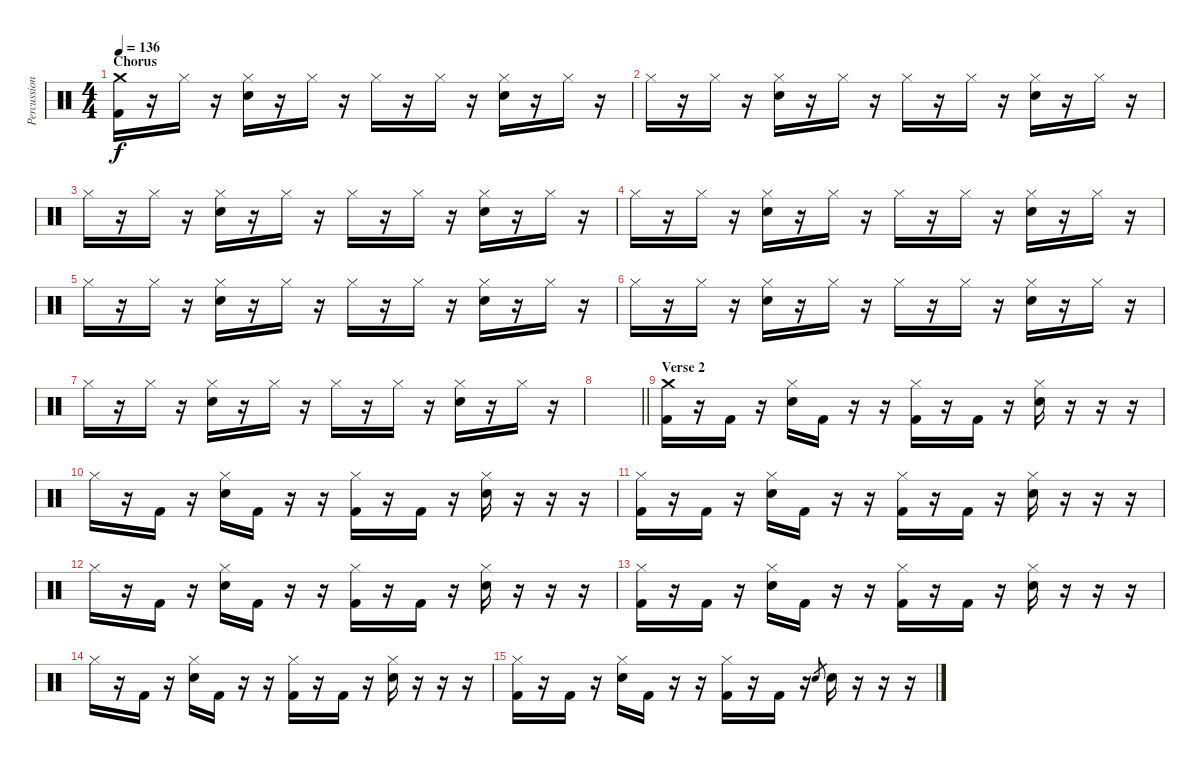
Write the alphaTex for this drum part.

\track ("Percussion" "Percussion") {instrument percussion}
\staff {score}
\articulation defaults
\ts (4 4)
\section ("" "Chorus")
\tempo 136
\clef neutral
\ks c
("Crash medium (hit)" "Kick (hit) 2").16{dy f} r.16 "Hi-Hat (closed)".16 r.16 ("Hi-Hat (closed)" "Electric Snare (hit)").16 r.16 "Hi-Hat (closed)".16 r.16 "Hi-Hat (closed)".16 r.16 "Hi-Hat (closed)".16 r.16 ("Hi-Hat (closed)" "Electric Snare (hit)").16 r.16 "Hi-Hat (closed)".16 r.16 |
"Hi-Hat (closed)".16 r.16 "Hi-Hat (closed)".16 r.16 ("Hi-Hat (closed)" "Electric Snare (hit)").16 r.16 "Hi-Hat (closed)".16 r.16 "Hi-Hat (closed)".16 r.16 "Hi-Hat (closed)".16 r.16 ("Hi-Hat (closed)" "Electric Snare (hit)").16 r.16 "Hi-Hat (closed)".16 r.16 |
"Hi-Hat (closed)".16 r.16 "Hi-Hat (closed)".16 r.16 ("Hi-Hat (closed)" "Electric Snare (hit)").16 r.16 "Hi-Hat (closed)".16 r.16 "Hi-Hat (closed)".16 r.16 "Hi-Hat (closed)".16 r.16 ("Hi-Hat (closed)" "Electric Snare (hit)").16 r.16 "Hi-Hat (closed)".16 r.16 |
"Hi-Hat (closed)".16 r.16 "Hi-Hat (closed)".16 r.16 ("Hi-Hat (closed)" "Electric Snare (hit)").16 r.16 "Hi-Hat (closed)".16 r.16 "Hi-Hat (closed)".16 r.16 "Hi-Hat (closed)".16 r.16 ("Hi-Hat (closed)" "Electric Snare (hit)").16 r.16 "Hi-Hat (closed)".16 r.16 |
"Hi-Hat (closed)".16 r.16 "Hi-Hat (closed)".16 r.16 ("Hi-Hat (closed)" "Electric Snare (hit)").16 r.16 "Hi-Hat (closed)".16 r.16 "Hi-Hat (closed)".16 r.16 "Hi-Hat (closed)".16 r.16 ("Hi-Hat (closed)" "Electric Snare (hit)").16 r.16 "Hi-Hat (closed)".16 r.16 |
"Hi-Hat (closed)".16 r.16 "Hi-Hat (closed)".16 r.16 ("Hi-Hat (closed)" "Electric Snare (hit)").16 r.16 "Hi-Hat (closed)".16 r.16 "Hi-Hat (closed)".16 r.16 "Hi-Hat (closed)".16 r.16 ("Hi-Hat (closed)" "Electric Snare (hit)").16 r.16 "Hi-Hat (closed)".16 r.16 |
"Hi-Hat (closed)".16 r.16 "Hi-Hat (closed)".16 r.16 ("Hi-Hat (closed)" "Electric Snare (hit)").16 r.16 "Hi-Hat (closed)".16 r.16 "Hi-Hat (closed)".16 r.16 "Hi-Hat (closed)".16 r.16 ("Hi-Hat (closed)" "Electric Snare (hit)").16 r.16 "Hi-Hat (closed)".16 r.16 |
\barLineRight lightlight
|
\section ("" "Verse 2")
("Crash medium (hit)" "Kick (hit) 2").16 r.16 "Kick (hit) 2".16 r.16 ("Hi-Hat (closed)" "Electric Snare (hit)").16 "Kick (hit) 2".16 r.16 r.16 ("Hi-Hat (closed)" "Kick (hit) 2").16 r.16 "Kick (hit) 2".16 r.16 ("Hi-Hat (closed)" "Electric Snare (hit)").16 r.16 r.16 r.16 |
"Hi-Hat (closed)".16 r.16 "Kick (hit) 2".16 r.16 ("Hi-Hat (closed)" "Electric Snare (hit)").16 "Kick (hit) 2".16 r.16 r.16 ("Hi-Hat (closed)" "Kick (hit) 2").16 r.16 "Kick (hit) 2".16 r.16 ("Hi-Hat (closed)" "Electric Snare (hit)").16 r.16 r.16 r.16 |
("Hi-Hat (closed)" "Kick (hit) 2").16 r.16 "Kick (hit) 2".16 r.16 ("Hi-Hat (closed)" "Electric Snare (hit)").16 "Kick (hit) 2".16 r.16 r.16 ("Hi-Hat (closed)" "Kick (hit) 2").16 r.16 "Kick (hit) 2".16 r.16 ("Hi-Hat (closed)" "Electric Snare (hit)").16 r.16 r.16 r.16 |
"Hi-Hat (closed)".16 r.16 "Kick (hit) 2".16 r.16 ("Hi-Hat (closed)" "Electric Snare (hit)").16 "Kick (hit) 2".16 r.16 r.16 ("Hi-Hat (closed)" "Kick (hit) 2").16 r.16 "Kick (hit) 2".16 r.16 ("Hi-Hat (closed)" "Electric Snare (hit)").16 r.16 r.16 r.16 |
("Hi-Hat (closed)" "Kick (hit) 2").16 r.16 "Kick (hit) 2".16 r.16 ("Hi-Hat (closed)" "Electric Snare (hit)").16 "Kick (hit) 2".16 r.16 r.16 ("Hi-Hat (closed)" "Kick (hit) 2").16 r.16 "Kick (hit) 2".16 r.16 ("Hi-Hat (closed)" "Electric Snare (hit)").16 r.16 r.16 r.16 |
"Hi-Hat (closed)".16 r.16 "Kick (hit) 2".16 r.16 ("Hi-Hat (closed)" "Electric Snare (hit)").16 "Kick (hit) 2".16 r.16 r.16 ("Hi-Hat (closed)" "Kick (hit) 2").16 r.16 "Kick (hit) 2".16 r.16 ("Hi-Hat (closed)" "Electric Snare (hit)").16 r.16 r.16 r.16 |
("Hi-Hat (closed)" "Kick (hit) 2").16 r.16 "Kick (hit) 2".16 r.16 ("Hi-Hat (closed)" "Electric Snare (hit)").16 "Kick (hit) 2".16 r.16 r.16 ("Hi-Hat (closed)" "Kick (hit) 2").16 r.16 "Kick (hit) 2".16 r.16 "Electric Snare (hit)".8{gr} "Electric Snare (hit)".16 r.16 r.16 r.16
